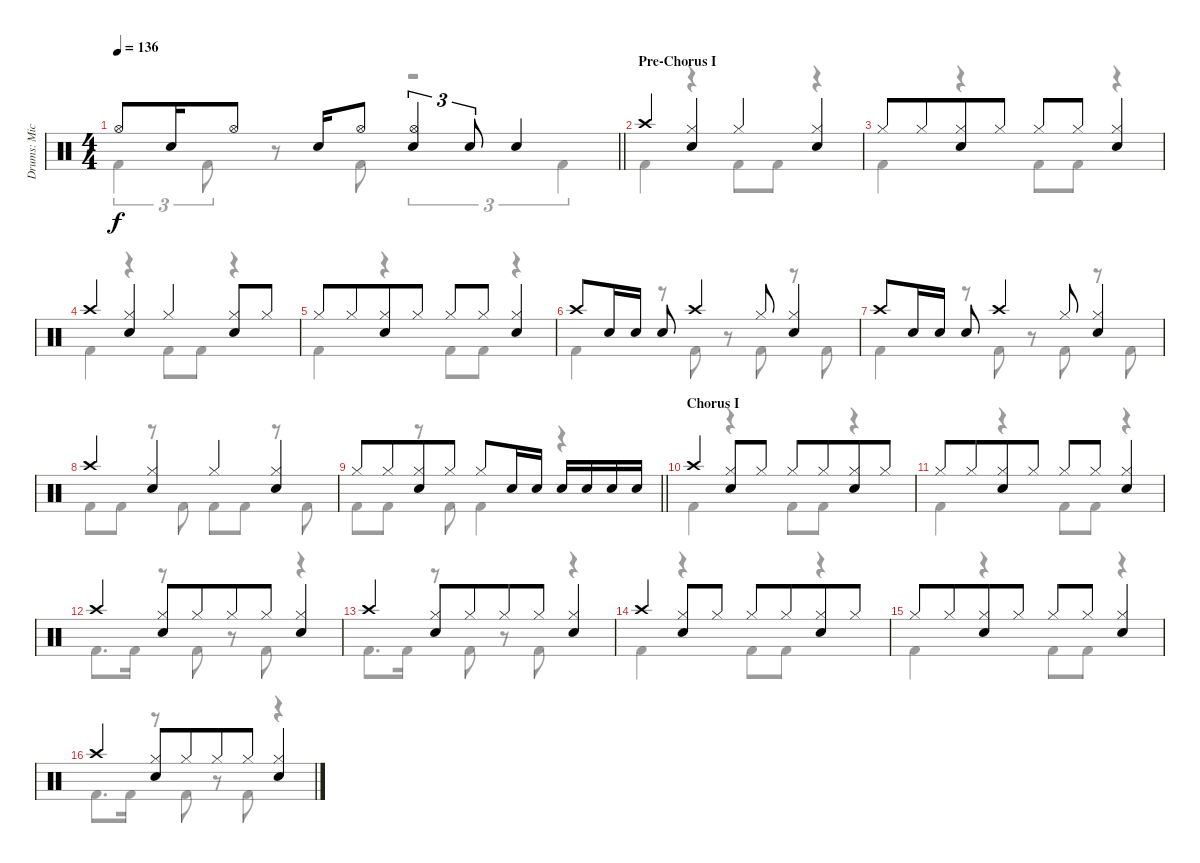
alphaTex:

\track ("Drums: Mick" "Drums: Mic") {instrument percussion}
\staff {score}
\articulation defaults
\voice
\ts (4 4)
\tempo 136
\clef neutral
\barLineRight lightlight
\ks c "Hi-Hat (open)".8{dy f} "Snare (hit) 2".16 "Hi-Hat (open)".8 "Snare (hit) 2".16 "Hi-Hat (open)".8
("Hi-Hat (open)" "Snare (hit) 2").4{tu (3 2)} "Snare (hit) 2".8{tu (3 2)} "Snare (hit) 2".4 |
\section ("" "Pre-Chorus I")
"Crash high (hit)".4 ("Hi-Hat (closed)" "Snare (hit) 2").4 "Hi-Hat (closed)".4 ("Hi-Hat (closed)" "Snare (hit) 2").4 |
"Hi-Hat (closed)".8 "Hi-Hat (closed)".8{beam merge} ("Hi-Hat (closed)" "Snare (hit) 2").8 "Hi-Hat (closed)".8 "Hi-Hat (closed)".8 "Hi-Hat (closed)".8 ("Hi-Hat (closed)" "Snare (hit) 2").4 |
"Crash high (hit)".4 ("Hi-Hat (closed)" "Snare (hit) 2").4 "Hi-Hat (closed)".4 ("Hi-Hat (closed)" "Snare (hit) 2").8 "Hi-Hat (closed)".8 |
"Hi-Hat (closed)".8 "Hi-Hat (closed)".8{beam merge} ("Hi-Hat (closed)" "Snare (hit) 2").8 "Hi-Hat (closed)".8 "Hi-Hat (closed)".8 "Hi-Hat (closed)".8 ("Hi-Hat (closed)" "Snare (hit) 2").4 |
"Crash high (hit)".8 "Snare (hit) 2".16 "Snare (hit) 2".16 "Snare (hit) 2".8 "Crash high (hit)".4 "Hi-Hat (closed)".8 ("Hi-Hat (closed)" "Snare (hit) 2").4 |
"Crash high (hit)".8 "Snare (hit) 2".16 "Snare (hit) 2".16 "Snare (hit) 2".8 "Crash high (hit)".4 "Hi-Hat (closed)".8 ("Hi-Hat (closed)" "Snare (hit) 2").4 |
"Crash high (hit)".4 ("Hi-Hat (closed)" "Snare (hit) 2").4 "Hi-Hat (closed)".4 ("Hi-Hat (closed)" "Snare (hit) 2").4 |
\barLineRight lightlight "Hi-Hat (closed)".8 "Hi-Hat (closed)".8{beam merge}
("Hi-Hat (closed)" "Snare (hit) 2").8 "Hi-Hat (closed)".8 "Hi-Hat (closed)".8 "Snare (hit) 2".16 "Snare (hit) 2".16 "Snare (hit) 2".16 "Snare (hit) 2".16 "Snare (hit) 2".16 "Snare (hit) 2".16 |
\section ("" "Chorus I")
"Crash high (hit)".4 ("Hi-Hat (closed)" "Snare (hit) 2").8 "Hi-Hat (closed)".8 "Hi-Hat (closed)".8 "Hi-Hat (closed)".8{beam merge} ("Hi-Hat (closed)" "Snare (hit) 2").8 "Hi-Hat (closed)".8 |
"Hi-Hat (closed)".8 "Hi-Hat (closed)".8{beam merge} ("Hi-Hat (closed)" "Snare (hit) 2").8 "Hi-Hat (closed)".8 "Hi-Hat (closed)".8 "Hi-Hat (closed)".8 ("Hi-Hat (closed)" "Snare (hit) 2").4 |
"Crash high (hit)".4 ("Hi-Hat (closed)" "Snare (hit) 2").8 "Hi-Hat (closed)".8{beam merge} "Hi-Hat (closed)".8 "Hi-Hat (closed)".8{beam merge} ("Hi-Hat (closed)" "Snare (hit) 2").4 |
"Crash high (hit)".4 ("Hi-Hat (closed)" "Snare (hit) 2").8 "Hi-Hat (closed)".8{beam merge} "Hi-Hat (closed)".8 "Hi-Hat (closed)".8{beam merge} ("Hi-Hat (closed)" "Snare (hit) 2").4 |
"Crash high (hit)".4 ("Hi-Hat (closed)" "Snare (hit) 2").8 "Hi-Hat (closed)".8 "Hi-Hat (closed)".8 "Hi-Hat (closed)".8{beam merge} ("Hi-Hat (closed)" "Snare (hit) 2").8 "Hi-Hat (closed)".8 |
"Hi-Hat (closed)".8 "Hi-Hat (closed)".8{beam merge} ("Hi-Hat (closed)" "Snare (hit) 2").8 "Hi-Hat (closed)".8 "Hi-Hat (closed)".8 "Hi-Hat (closed)".8 ("Hi-Hat (closed)" "Snare (hit) 2").4 |
"Crash high (hit)".4 ("Hi-Hat (closed)" "Snare (hit) 2").8 "Hi-Hat (closed)".8{beam merge} "Hi-Hat (closed)".8 "Hi-Hat (closed)".8{beam merge} ("Hi-Hat (closed)" "Snare (hit) 2").4
\voice
\clef neutral
\ottava regular
\simile none
\barLineRight lightlight
\ks c "Kick (hit) 2".4{tu (3 2) dy f} "Kick (hit) 2".8{tu (3 2)}
r.8 "Kick (hit) 2".8 r.2{tu (3 2)} "Kick (hit) 2".4{tu (3 2)} |
"Kick (hit) 2".4 r.4 "Kick (hit) 2".8 "Kick (hit) 2".8 r.4 |
"Kick (hit) 2".4 r.4 "Kick (hit) 2".8 "Kick (hit) 2".8 r.4 |
"Kick (hit) 2".4 r.4 "Kick (hit) 2".8 "Kick (hit) 2".8 r.4 |
"Kick (hit) 2".4 r.4 "Kick (hit) 2".8 "Kick (hit) 2".8 r.4 |
"Kick (hit) 2".4 r.8 "Kick (hit) 2".8 r.8 "Kick (hit) 2".8 r.8 "Kick (hit) 2".8 |
"Kick (hit) 2".4 r.8 "Kick (hit) 2".8 r.8 "Kick (hit) 2".8 r.8 "Kick (hit) 2".8 |
"Kick (hit) 2".8 "Kick (hit) 2".8 r.8 "Kick (hit) 2".8 "Kick (hit) 2".8 "Kick (hit) 2".8 r.8 "Kick (hit) 2".8 |
\barLineRight lightlight "Kick (hit) 2".8 "Kick (hit) 2".8
r.8 "Kick (hit) 2".8 "Kick (hit) 2".4 r.4 |
"Kick (hit) 2".4 r.4 "Kick (hit) 2".8 "Kick (hit) 2".8 r.4 |
"Kick (hit) 2".4 r.4 "Kick (hit) 2".8 "Kick (hit) 2".8 r.4 |
"Kick (hit) 2".8{d} "Kick (hit) 2".16 r.8 "Kick (hit) 2".8 r.8 "Kick (hit) 2".8 r.4 |
"Kick (hit) 2".8{d} "Kick (hit) 2".16 r.8 "Kick (hit) 2".8 r.8 "Kick (hit) 2".8 r.4 |
"Kick (hit) 2".4 r.4 "Kick (hit) 2".8 "Kick (hit) 2".8 r.4 |
"Kick (hit) 2".4 r.4 "Kick (hit) 2".8 "Kick (hit) 2".8 r.4 |
"Kick (hit) 2".8{d} "Kick (hit) 2".16 r.8 "Kick (hit) 2".8 r.8 "Kick (hit) 2".8 r.4
